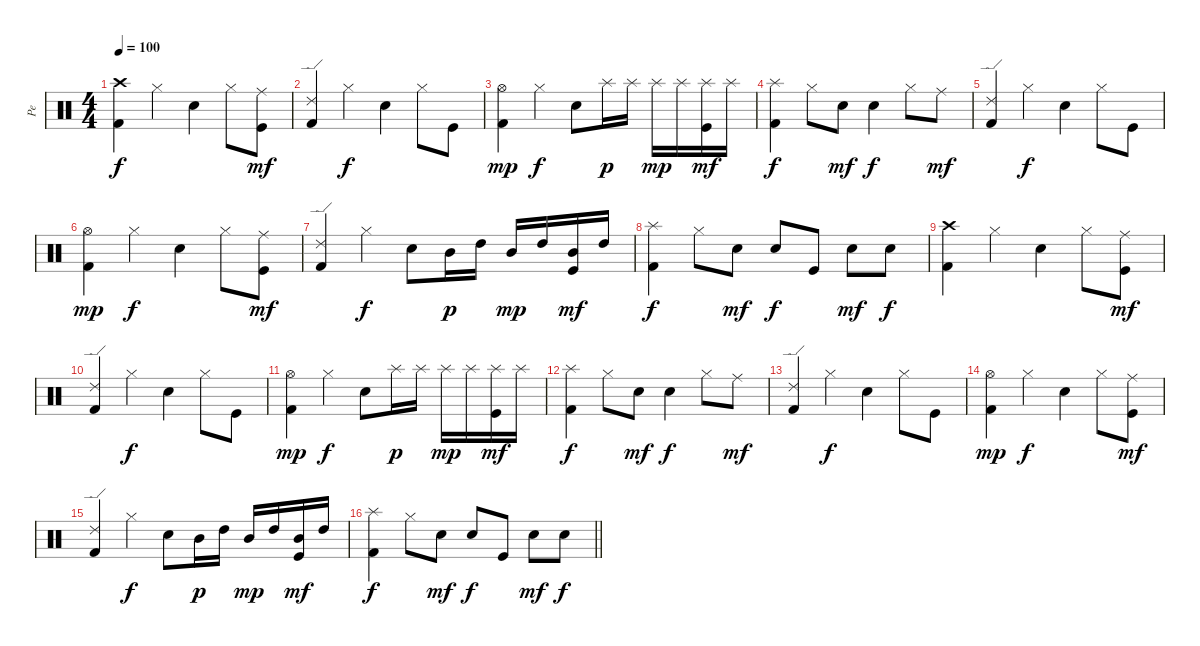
\track ("Pe" "Pe") {instrument percussion}
\staff {score}
\articulation defaults
\ts (4 4)
\tempo 100
\clef neutral
\ks c
("Kick (hit) 2" "Crash high (hit)").4{dy f} "Hi-Hat (closed)".4 "Electric Snare (hit)".4 "Hi-Hat (closed)".8 ("Kick (hit)" "Ride (middle)").8{dy mf} |
("Kick (hit) 2" "Ride (edge) 2").4 "Hi-Hat (closed)".4{dy f} "Electric Snare (hit)".4 "Hi-Hat (closed)".8 "Kick (hit)".8 |
("Kick (hit) 2" "Hi-Hat (open)").4{dy mp} "Hi-Hat (closed)".4{dy f} "Electric Snare (hit)".8 "Splash (hit)".16{dy p} "Splash (hit)".16 "Splash (hit)".16{dy mp} "Splash (hit)".16 ("Kick (hit)" "Splash (hit)").16{dy mf} "Splash (hit)".16 |
("Kick (hit) 2" "Splash (hit)").4{dy f} "Hi-Hat (closed)".8 "Electric Snare (hit)".8{dy mf} "Electric Snare (hit)".4{dy f} "Hi-Hat (closed)".8 "Ride (middle)".8{dy mf} |
("Kick (hit) 2" "Ride (edge) 2").4 "Hi-Hat (closed)".4{dy f} "Electric Snare (hit)".4 "Hi-Hat (closed)".8 "Kick (hit)".8 |
("Kick (hit) 2" "Hi-Hat (open)").4{dy mp} "Hi-Hat (closed)".4{dy f} "Electric Snare (hit)".4 "Hi-Hat (closed)".8 ("Kick (hit)" "Ride (middle)").8{dy mf} |
("Kick (hit) 2" "Ride (edge) 2").4 "Hi-Hat (closed)".4{dy f} "Electric Snare (hit)".8 "Mid Tom (hit)".16{dy p} "High Tom (hit)".16 "Mid Tom (hit)".16{dy mp} "High Tom (hit)".16 ("Kick (hit)" "Mid Tom (hit)").16{dy mf} "High Tom (hit)".16 |
("Kick (hit) 2" "Splash (hit)").4{dy f} "Hi-Hat (closed)".8 "Electric Snare (hit)".8{dy mf} "Electric Snare (hit)".8{dy f} "Kick (hit)".8 "Electric Snare (hit)".8{dy mf} "Electric Snare (hit)".8{dy f} |
("Kick (hit) 2" "Crash high (hit)").4 "Hi-Hat (closed)".4 "Electric Snare (hit)".4 "Hi-Hat (closed)".8 ("Kick (hit)" "Ride (middle)").8{dy mf} |
("Kick (hit) 2" "Ride (edge) 2").4 "Hi-Hat (closed)".4{dy f} "Electric Snare (hit)".4 "Hi-Hat (closed)".8 "Kick (hit)".8 |
("Kick (hit) 2" "Hi-Hat (open)").4{dy mp} "Hi-Hat (closed)".4{dy f} "Electric Snare (hit)".8 "Splash (hit)".16{dy p} "Splash (hit)".16 "Splash (hit)".16{dy mp} "Splash (hit)".16 ("Kick (hit)" "Splash (hit)").16{dy mf} "Splash (hit)".16 |
("Kick (hit) 2" "Splash (hit)").4{dy f} "Hi-Hat (closed)".8 "Electric Snare (hit)".8{dy mf} "Electric Snare (hit)".4{dy f} "Hi-Hat (closed)".8 "Ride (middle)".8{dy mf} |
("Kick (hit) 2" "Ride (edge) 2").4 "Hi-Hat (closed)".4{dy f} "Electric Snare (hit)".4 "Hi-Hat (closed)".8 "Kick (hit)".8 |
("Kick (hit) 2" "Hi-Hat (open)").4{dy mp} "Hi-Hat (closed)".4{dy f} "Electric Snare (hit)".4 "Hi-Hat (closed)".8 ("Kick (hit)" "Ride (middle)").8{dy mf} |
("Kick (hit) 2" "Ride (edge) 2").4 "Hi-Hat (closed)".4{dy f} "Electric Snare (hit)".8 "Mid Tom (hit)".16{dy p} "High Tom (hit)".16 "Mid Tom (hit)".16{dy mp} "High Tom (hit)".16 ("Kick (hit)" "Mid Tom (hit)").16{dy mf} "High Tom (hit)".16 |
\barLineRight lightlight
("Kick (hit) 2" "Splash (hit)").4{dy f} "Hi-Hat (closed)".8 "Electric Snare (hit)".8{dy mf} "Electric Snare (hit)".8{dy f} "Kick (hit)".8 "Electric Snare (hit)".8{dy mf} "Electric Snare (hit)".8{dy f}
